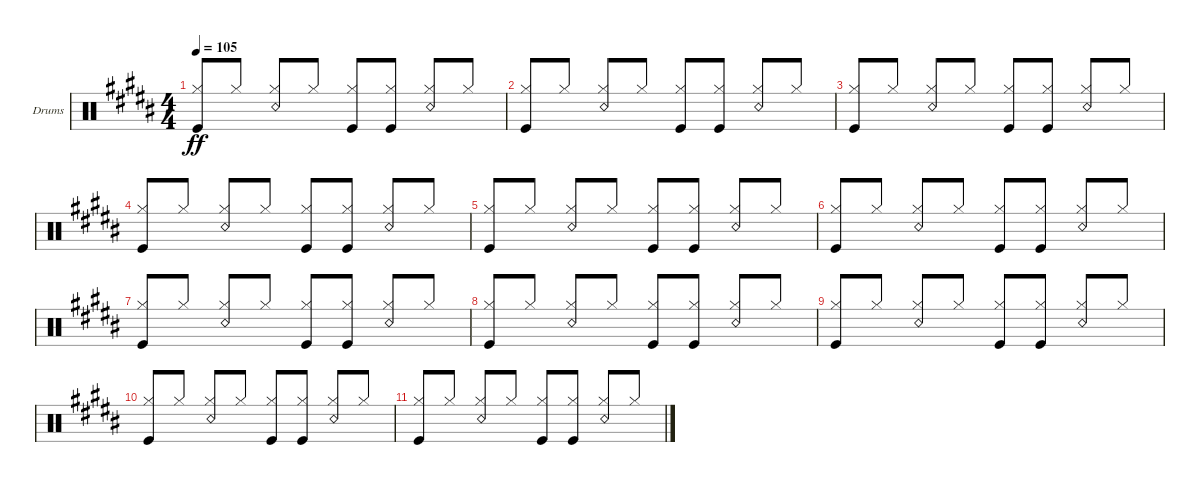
\defaultSystemsLayout 4
\bracketExtendMode groupsimilarinstruments
\firstSystemTrackNameOrientation horizontal
\otherSystemsTrackNameOrientation horizontal
\track ("Ringo Starr" "Drums") {instrument percussion}
\staff {score}
\articulation defaults
\ts (4 4)
\tempo 105
\clef neutral
\ks b
("Hi-Hat (closed)" "Kick (hit)").8{dy ff beam invert} "Hi-Hat (closed)".8 ("Hi-Hat (closed)" "Snare (rim shot)").8{beam invert} "Hi-Hat (closed)".8 ("Hi-Hat (closed)" "Kick (hit)").8 ("Hi-Hat (closed)" "Kick (hit)").8 ("Hi-Hat (closed)" "Snare (rim shot)").8{beam invert} "Hi-Hat (closed)".8 |
("Hi-Hat (closed)" "Kick (hit)").8{beam invert} "Hi-Hat (closed)".8 ("Hi-Hat (closed)" "Snare (rim shot)").8{beam invert} "Hi-Hat (closed)".8 ("Hi-Hat (closed)" "Kick (hit)").8 ("Hi-Hat (closed)" "Kick (hit)").8 ("Hi-Hat (closed)" "Snare (rim shot)").8{beam invert} "Hi-Hat (closed)".8 |
("Hi-Hat (closed)" "Kick (hit)").8{beam invert} "Hi-Hat (closed)".8 ("Hi-Hat (closed)" "Snare (rim shot)").8{beam invert} "Hi-Hat (closed)".8 ("Hi-Hat (closed)" "Kick (hit)").8 ("Hi-Hat (closed)" "Kick (hit)").8 ("Hi-Hat (closed)" "Snare (rim shot)").8{beam invert} "Hi-Hat (closed)".8 |
("Hi-Hat (closed)" "Kick (hit)").8{beam invert} "Hi-Hat (closed)".8 ("Hi-Hat (closed)" "Snare (rim shot)").8{beam invert} "Hi-Hat (closed)".8 ("Hi-Hat (closed)" "Kick (hit)").8 ("Hi-Hat (closed)" "Kick (hit)").8 ("Hi-Hat (closed)" "Snare (rim shot)").8{beam invert} "Hi-Hat (closed)".8 |
("Hi-Hat (closed)" "Kick (hit)").8{beam invert} "Hi-Hat (closed)".8 ("Hi-Hat (closed)" "Snare (rim shot)").8{beam invert} "Hi-Hat (closed)".8 ("Hi-Hat (closed)" "Kick (hit)").8 ("Hi-Hat (closed)" "Kick (hit)").8 ("Hi-Hat (closed)" "Snare (rim shot)").8{beam invert} "Hi-Hat (closed)".8 |
("Hi-Hat (closed)" "Kick (hit)").8{beam invert} "Hi-Hat (closed)".8 ("Hi-Hat (closed)" "Snare (rim shot)").8{beam invert} "Hi-Hat (closed)".8 ("Hi-Hat (closed)" "Kick (hit)").8 ("Hi-Hat (closed)" "Kick (hit)").8 ("Hi-Hat (closed)" "Snare (rim shot)").8{beam invert} "Hi-Hat (closed)".8 |
("Hi-Hat (closed)" "Kick (hit)").8{beam invert} "Hi-Hat (closed)".8 ("Hi-Hat (closed)" "Snare (rim shot)").8{beam invert} "Hi-Hat (closed)".8 ("Hi-Hat (closed)" "Kick (hit)").8 ("Hi-Hat (closed)" "Kick (hit)").8 ("Hi-Hat (closed)" "Snare (rim shot)").8{beam invert} "Hi-Hat (closed)".8 |
("Hi-Hat (closed)" "Kick (hit)").8{beam invert} "Hi-Hat (closed)".8 ("Hi-Hat (closed)" "Snare (rim shot)").8{beam invert} "Hi-Hat (closed)".8 ("Hi-Hat (closed)" "Kick (hit)").8 ("Hi-Hat (closed)" "Kick (hit)").8 ("Hi-Hat (closed)" "Snare (rim shot)").8{beam invert} "Hi-Hat (closed)".8 |
("Hi-Hat (closed)" "Kick (hit)").8{beam invert} "Hi-Hat (closed)".8 ("Hi-Hat (closed)" "Snare (rim shot)").8{beam invert} "Hi-Hat (closed)".8 ("Hi-Hat (closed)" "Kick (hit)").8 ("Hi-Hat (closed)" "Kick (hit)").8 ("Hi-Hat (closed)" "Snare (rim shot)").8{beam invert} "Hi-Hat (closed)".8 |
("Hi-Hat (closed)" "Kick (hit)").8{beam invert} "Hi-Hat (closed)".8 ("Hi-Hat (closed)" "Snare (rim shot)").8{beam invert} "Hi-Hat (closed)".8 ("Hi-Hat (closed)" "Kick (hit)").8 ("Hi-Hat (closed)" "Kick (hit)").8 ("Hi-Hat (closed)" "Snare (rim shot)").8{beam invert} "Hi-Hat (closed)".8 |
("Hi-Hat (closed)" "Kick (hit)").8{beam invert} "Hi-Hat (closed)".8 ("Hi-Hat (closed)" "Snare (rim shot)").8{beam invert} "Hi-Hat (closed)".8 ("Hi-Hat (closed)" "Kick (hit)").8 ("Hi-Hat (closed)" "Kick (hit)").8 ("Hi-Hat (closed)" "Snare (rim shot)").8{beam invert} "Hi-Hat (closed)".8
